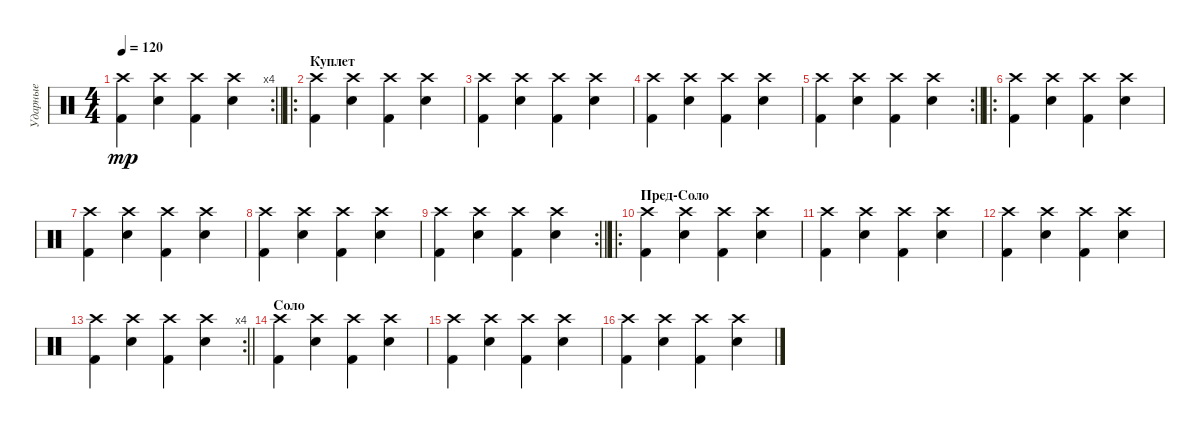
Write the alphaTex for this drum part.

\track ("Ударные" "Ударные") {instrument percussion}
\staff {score}
\articulation defaults
\rc 4
\ts (4 4)
\tempo 120
\clef neutral
\barLineRight lightlight
\ks c
("Crash high (hit)" "Kick (hit) 2").4{dy mp} ("Crash high (hit)" "Snare (hit) 2").4 ("Crash high (hit)" "Kick (hit) 2").4 ("Crash high (hit)" "Snare (hit) 2").4 |
\ro
\section ("" "Куплет")
("Crash high (hit)" "Kick (hit) 2").4 ("Crash high (hit)" "Snare (hit) 2").4 ("Crash high (hit)" "Kick (hit) 2").4 ("Crash high (hit)" "Snare (hit) 2").4 |
("Crash high (hit)" "Kick (hit) 2").4 ("Crash high (hit)" "Snare (hit) 2").4 ("Crash high (hit)" "Kick (hit) 2").4 ("Crash high (hit)" "Snare (hit) 2").4 |
("Crash high (hit)" "Kick (hit) 2").4 ("Crash high (hit)" "Snare (hit) 2").4 ("Crash high (hit)" "Kick (hit) 2").4 ("Crash high (hit)" "Snare (hit) 2").4 |
\rc 2
\barLineRight lightlight
("Crash high (hit)" "Kick (hit) 2").4 ("Crash high (hit)" "Snare (hit) 2").4 ("Crash high (hit)" "Kick (hit) 2").4 ("Crash high (hit)" "Snare (hit) 2").4 |
\ro
("Crash high (hit)" "Kick (hit) 2").4 ("Crash high (hit)" "Snare (hit) 2").4 ("Crash high (hit)" "Kick (hit) 2").4 ("Crash high (hit)" "Snare (hit) 2").4 |
("Crash high (hit)" "Kick (hit) 2").4 ("Crash high (hit)" "Snare (hit) 2").4 ("Crash high (hit)" "Kick (hit) 2").4 ("Crash high (hit)" "Snare (hit) 2").4 |
("Crash high (hit)" "Kick (hit) 2").4 ("Crash high (hit)" "Snare (hit) 2").4 ("Crash high (hit)" "Kick (hit) 2").4 ("Crash high (hit)" "Snare (hit) 2").4 |
\rc 2
\barLineRight lightlight
("Crash high (hit)" "Kick (hit) 2").4 ("Crash high (hit)" "Snare (hit) 2").4 ("Crash high (hit)" "Kick (hit) 2").4 ("Crash high (hit)" "Snare (hit) 2").4 |
\ro
\section ("" "Пред-Соло")
("Crash high (hit)" "Kick (hit) 2").4 ("Crash high (hit)" "Snare (hit) 2").4 ("Crash high (hit)" "Kick (hit) 2").4 ("Crash high (hit)" "Snare (hit) 2").4 |
("Crash high (hit)" "Kick (hit) 2").4 ("Crash high (hit)" "Snare (hit) 2").4 ("Crash high (hit)" "Kick (hit) 2").4 ("Crash high (hit)" "Snare (hit) 2").4 |
("Crash high (hit)" "Kick (hit) 2").4 ("Crash high (hit)" "Snare (hit) 2").4 ("Crash high (hit)" "Kick (hit) 2").4 ("Crash high (hit)" "Snare (hit) 2").4 |
\rc 4
\barLineRight lightlight
("Crash high (hit)" "Kick (hit) 2").4 ("Crash high (hit)" "Snare (hit) 2").4 ("Crash high (hit)" "Kick (hit) 2").4 ("Crash high (hit)" "Snare (hit) 2").4 |
\section ("" "Соло")
("Crash high (hit)" "Kick (hit) 2").4 ("Crash high (hit)" "Snare (hit) 2").4 ("Crash high (hit)" "Kick (hit) 2").4 ("Crash high (hit)" "Snare (hit) 2").4 |
("Crash high (hit)" "Kick (hit) 2").4 ("Crash high (hit)" "Snare (hit) 2").4 ("Crash high (hit)" "Kick (hit) 2").4 ("Crash high (hit)" "Snare (hit) 2").4 |
("Crash high (hit)" "Kick (hit) 2").4 ("Crash high (hit)" "Snare (hit) 2").4 ("Crash high (hit)" "Kick (hit) 2").4 ("Crash high (hit)" "Snare (hit) 2").4
